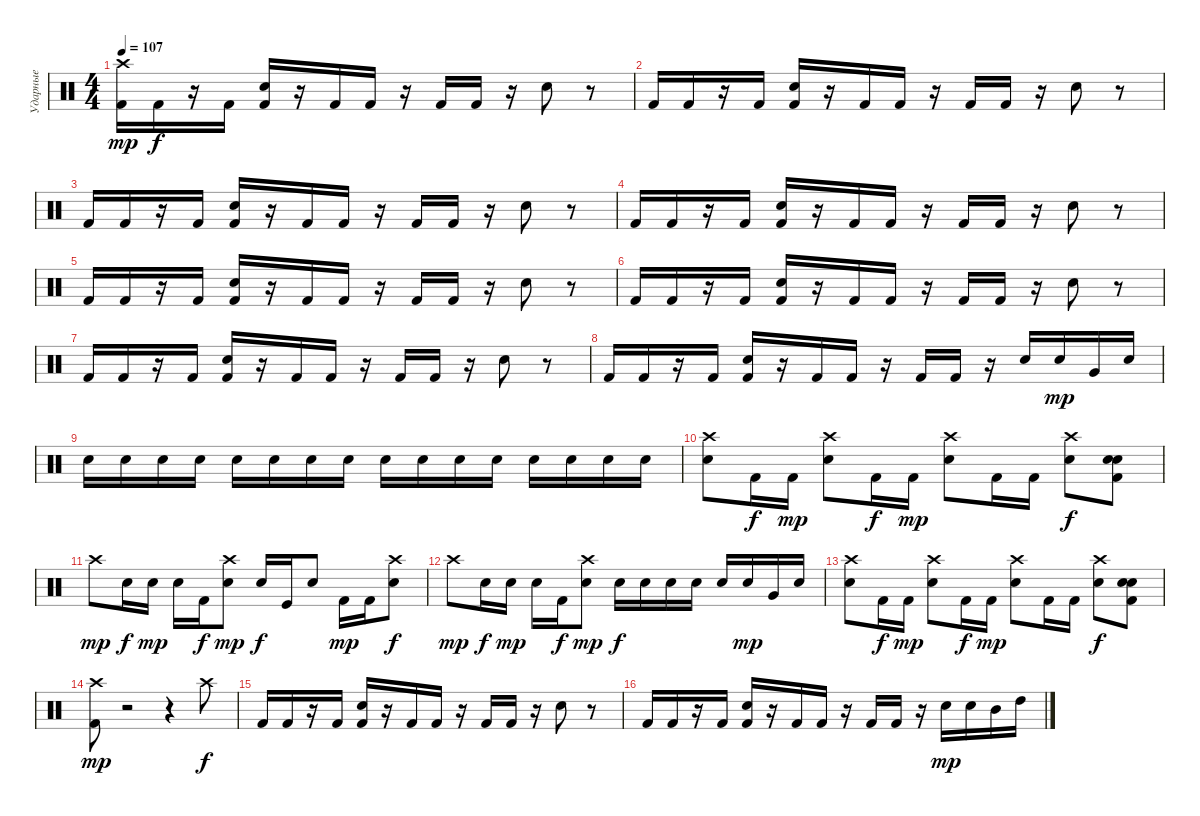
\track ("Ударные" "Ударные") {instrument percussion}
\staff {score}
\articulation defaults
\ts (4 4)
\tempo 107
\clef neutral
\ks c
("Crash high (hit)" "Kick (hit) 2").16{dy mp} "Kick (hit) 2".16{dy f} r.16 "Kick (hit) 2".16 ("Snare (hit) 2" "Kick (hit) 2").16 r.16 "Kick (hit) 2".16 "Kick (hit) 2".16 r.16 "Kick (hit) 2".16 "Kick (hit) 2".16 r.16 "Snare (hit) 2".8 r.8 |
"Kick (hit) 2".16 "Kick (hit) 2".16 r.16 "Kick (hit) 2".16 ("Snare (hit) 2" "Kick (hit) 2").16 r.16 "Kick (hit) 2".16 "Kick (hit) 2".16 r.16 "Kick (hit) 2".16 "Kick (hit) 2".16 r.16 "Snare (hit) 2".8 r.8 |
"Kick (hit) 2".16 "Kick (hit) 2".16 r.16 "Kick (hit) 2".16 ("Snare (hit) 2" "Kick (hit) 2").16 r.16 "Kick (hit) 2".16 "Kick (hit) 2".16 r.16 "Kick (hit) 2".16 "Kick (hit) 2".16 r.16 "Snare (hit) 2".8 r.8 |
"Kick (hit) 2".16 "Kick (hit) 2".16 r.16 "Kick (hit) 2".16 ("Snare (hit) 2" "Kick (hit) 2").16 r.16 "Kick (hit) 2".16 "Kick (hit) 2".16 r.16 "Kick (hit) 2".16 "Kick (hit) 2".16 r.16 "Snare (hit) 2".8 r.8 |
"Kick (hit) 2".16 "Kick (hit) 2".16 r.16 "Kick (hit) 2".16 ("Snare (hit) 2" "Kick (hit) 2").16 r.16 "Kick (hit) 2".16 "Kick (hit) 2".16 r.16 "Kick (hit) 2".16 "Kick (hit) 2".16 r.16 "Snare (hit) 2".8 r.8 |
"Kick (hit) 2".16 "Kick (hit) 2".16 r.16 "Kick (hit) 2".16 ("Snare (hit) 2" "Kick (hit) 2").16 r.16 "Kick (hit) 2".16 "Kick (hit) 2".16 r.16 "Kick (hit) 2".16 "Kick (hit) 2".16 r.16 "Snare (hit) 2".8 r.8 |
"Kick (hit) 2".16 "Kick (hit) 2".16 r.16 "Kick (hit) 2".16 ("Snare (hit) 2" "Kick (hit) 2").16 r.16 "Kick (hit) 2".16 "Kick (hit) 2".16 r.16 "Kick (hit) 2".16 "Kick (hit) 2".16 r.16 "Snare (hit) 2".8 r.8 |
"Kick (hit) 2".16 "Kick (hit) 2".16 r.16 "Kick (hit) 2".16 ("Snare (hit) 2" "Kick (hit) 2").16 r.16 "Kick (hit) 2".16 "Kick (hit) 2".16 r.16 "Kick (hit) 2".16 "Kick (hit) 2".16 r.16 "Snare (hit) 2".16 "Electric Snare (hit)".16{dy mp} "Very Low Tom (hit)".16 "Electric Snare (hit)".16 |
"Electric Snare (hit)".16 "Electric Snare (hit)".16 "Electric Snare (hit)".16 "Electric Snare (hit)".16 "Electric Snare (hit)".16 "Electric Snare (hit)".16 "Electric Snare (hit)".16 "Electric Snare (hit)".16 "Electric Snare (hit)".16 "Electric Snare (hit)".16 "Electric Snare (hit)".16 "Electric Snare (hit)".16 "Electric Snare (hit)".16 "Electric Snare (hit)".16 "Electric Snare (hit)".16 "Electric Snare (hit)".16 |
("Crash high (hit)" "Snare (hit) 2").8 "Kick (hit) 2".16{dy f} "Kick (hit) 2".16{dy mp} ("Crash high (hit)" "Snare (hit) 2").8 "Kick (hit) 2".16{dy f} "Kick (hit) 2".16{dy mp} ("Crash high (hit)" "Snare (hit) 2").8 "Kick (hit) 2".16 "Kick (hit) 2".16 ("Crash high (hit)" "Electric Snare (hit)").8{dy f} ("Electric Snare (hit)" "Snare (hit) 2" "Kick (hit) 2").8 |
"Crash high (hit)".8{dy mp} "Electric Snare (hit)".16{dy f} "Electric Snare (hit)".16{dy mp} "Electric Snare (hit)".16 "Kick (hit) 2".16{dy f} ("Crash high (hit)" "Snare (hit) 2").8{dy mp} "Electric Snare (hit)".16{dy f} "Kick (hit)".16 "Snare (hit) 2".8 "Kick (hit) 2".16{dy mp} "Kick (hit) 2".16 ("Crash high (hit)" "Electric Snare (hit)").8{dy f} |
"Crash high (hit)".8{dy mp} "Electric Snare (hit)".16{dy f} "Electric Snare (hit)".16{dy mp} "Electric Snare (hit)".16 "Kick (hit) 2".16{dy f} ("Crash high (hit)" "Snare (hit) 2").8{dy mp} "Electric Snare (hit)".16{dy f} "Electric Snare (hit)".16 "Electric Snare (hit)".16 "Electric Snare (hit)".16 "Snare (hit) 2".16 "Electric Snare (hit)".16{dy mp} "Very Low Tom (hit)".16 "Electric Snare (hit)".16 |
("Crash high (hit)" "Snare (hit) 2").8 "Kick (hit) 2".16{dy f} "Kick (hit) 2".16{dy mp} ("Crash high (hit)" "Snare (hit) 2").8 "Kick (hit) 2".16{dy f} "Kick (hit) 2".16{dy mp} ("Crash high (hit)" "Snare (hit) 2").8 "Kick (hit) 2".16 "Kick (hit) 2".16 ("Crash high (hit)" "Electric Snare (hit)").8{dy f} ("Electric Snare (hit)" "Snare (hit) 2" "Kick (hit) 2").8 |
("Crash high (hit)" "Kick (hit) 2").8{dy mp} r.2 r.4 "Crash high (hit)".8{dy f} |
"Kick (hit) 2".16 "Kick (hit) 2".16 r.16 "Kick (hit) 2".16 ("Snare (hit) 2" "Kick (hit) 2").16 r.16 "Kick (hit) 2".16 "Kick (hit) 2".16 r.16 "Kick (hit) 2".16 "Kick (hit) 2".16 r.16 "Snare (hit) 2".8 r.8 |
"Kick (hit) 2".16 "Kick (hit) 2".16 r.16 "Kick (hit) 2".16 ("Snare (hit) 2" "Kick (hit) 2").16 r.16 "Kick (hit) 2".16 "Kick (hit) 2".16 r.16 "Kick (hit) 2".16 "Kick (hit) 2".16 r.16 "Snare (hit) 2".16{dy mp} "Electric Snare (hit)".16 "Mid Tom (hit)".16 "High Tom (hit)".16
